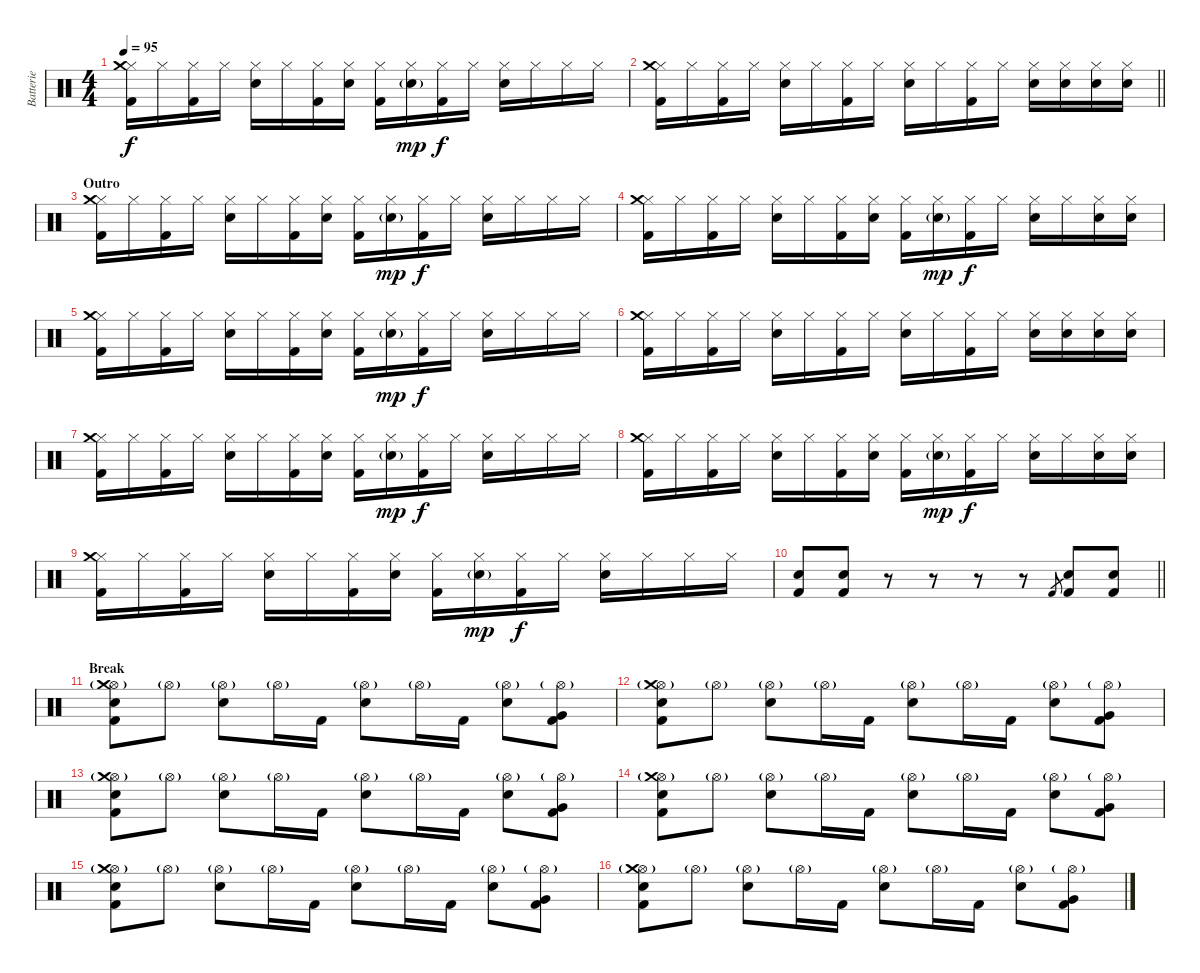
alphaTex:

\track ("Batterie" "Batterie") {instrument percussion}
\staff {score}
\articulation defaults
\ts (4 4)
\tempo 95
\clef neutral
\ks c
("Hi-Hat (closed)" "Crash medium (hit)" "Kick (hit) 2").16{dy f} "Hi-Hat (closed)".16 ("Hi-Hat (closed)" "Kick (hit) 2").16 "Hi-Hat (closed)".16 ("Hi-Hat (closed)" "Electric Snare (hit)").16 "Hi-Hat (closed)".16 ("Hi-Hat (closed)" "Kick (hit) 2").16 ("Hi-Hat (closed)" "Electric Snare (hit)").16 ("Hi-Hat (closed)" "Kick (hit) 2").16 ("Hi-Hat (closed)" "Electric Snare (hit)"{g}).16{dy mp} ("Hi-Hat (closed)" "Kick (hit) 2").16{dy f} "Hi-Hat (closed)".16 ("Hi-Hat (closed)" "Electric Snare (hit)").16 "Hi-Hat (closed)".16 "Hi-Hat (closed)".16 "Hi-Hat (closed)".16 |
\barLineRight lightlight
("Hi-Hat (closed)" "Crash medium (hit)" "Kick (hit) 2").16 "Hi-Hat (closed)".16 ("Hi-Hat (closed)" "Kick (hit) 2").16 "Hi-Hat (closed)".16 ("Hi-Hat (closed)" "Electric Snare (hit)").16 "Hi-Hat (closed)".16 ("Hi-Hat (closed)" "Kick (hit) 2").16 "Hi-Hat (closed)".16 ("Hi-Hat (closed)" "Electric Snare (hit)").16 "Hi-Hat (closed)".16 ("Hi-Hat (closed)" "Kick (hit) 2").16 "Hi-Hat (closed)".16 ("Hi-Hat (closed)" "Electric Snare (hit)").16 ("Hi-Hat (closed)" "Electric Snare (hit)").16 ("Hi-Hat (closed)" "Electric Snare (hit)").16 ("Hi-Hat (closed)" "Electric Snare (hit)").16 |
\section ("" "Outro")
("Hi-Hat (closed)" "Crash medium (hit)" "Kick (hit) 2").16 "Hi-Hat (closed)".16 ("Hi-Hat (closed)" "Kick (hit) 2").16 "Hi-Hat (closed)".16 ("Hi-Hat (closed)" "Electric Snare (hit)").16 "Hi-Hat (closed)".16 ("Hi-Hat (closed)" "Kick (hit) 2").16 ("Hi-Hat (closed)" "Electric Snare (hit)").16 ("Hi-Hat (closed)" "Kick (hit) 2").16 ("Hi-Hat (closed)" "Electric Snare (hit)"{g}).16{dy mp} ("Hi-Hat (closed)" "Kick (hit) 2").16{dy f} "Hi-Hat (closed)".16 ("Hi-Hat (closed)" "Electric Snare (hit)").16 "Hi-Hat (closed)".16 "Hi-Hat (closed)".16 "Hi-Hat (closed)".16 |
("Hi-Hat (closed)" "Crash medium (hit)" "Kick (hit) 2").16 "Hi-Hat (closed)".16 ("Hi-Hat (closed)" "Kick (hit) 2").16 "Hi-Hat (closed)".16 ("Hi-Hat (closed)" "Electric Snare (hit)").16 "Hi-Hat (closed)".16 ("Hi-Hat (closed)" "Kick (hit) 2").16 ("Hi-Hat (closed)" "Electric Snare (hit)").16 ("Hi-Hat (closed)" "Kick (hit) 2").16 ("Hi-Hat (closed)" "Electric Snare (hit)"{g}).16{dy mp} ("Hi-Hat (closed)" "Kick (hit) 2").16{dy f} "Hi-Hat (closed)".16 ("Hi-Hat (closed)" "Electric Snare (hit)").16 "Hi-Hat (closed)".16 ("Hi-Hat (closed)" "Electric Snare (hit)").16 ("Hi-Hat (closed)" "Electric Snare (hit)").16 |
("Hi-Hat (closed)" "Crash medium (hit)" "Kick (hit) 2").16 "Hi-Hat (closed)".16 ("Hi-Hat (closed)" "Kick (hit) 2").16 "Hi-Hat (closed)".16 ("Hi-Hat (closed)" "Electric Snare (hit)").16 "Hi-Hat (closed)".16 ("Hi-Hat (closed)" "Kick (hit) 2").16 ("Hi-Hat (closed)" "Electric Snare (hit)").16 ("Hi-Hat (closed)" "Kick (hit) 2").16 ("Hi-Hat (closed)" "Electric Snare (hit)"{g}).16{dy mp} ("Hi-Hat (closed)" "Kick (hit) 2").16{dy f} "Hi-Hat (closed)".16 ("Hi-Hat (closed)" "Electric Snare (hit)").16 "Hi-Hat (closed)".16 "Hi-Hat (closed)".16 "Hi-Hat (closed)".16 |
("Hi-Hat (closed)" "Crash medium (hit)" "Kick (hit) 2").16 "Hi-Hat (closed)".16 ("Hi-Hat (closed)" "Kick (hit) 2").16 "Hi-Hat (closed)".16 ("Hi-Hat (closed)" "Electric Snare (hit)").16 "Hi-Hat (closed)".16 ("Hi-Hat (closed)" "Kick (hit) 2").16 "Hi-Hat (closed)".16 ("Hi-Hat (closed)" "Electric Snare (hit)").16 "Hi-Hat (closed)".16 ("Hi-Hat (closed)" "Kick (hit) 2").16 "Hi-Hat (closed)".16 ("Hi-Hat (closed)" "Electric Snare (hit)").16 ("Hi-Hat (closed)" "Electric Snare (hit)").16 ("Hi-Hat (closed)" "Electric Snare (hit)").16 ("Hi-Hat (closed)" "Electric Snare (hit)").16 |
("Hi-Hat (closed)" "Crash medium (hit)" "Kick (hit) 2").16 "Hi-Hat (closed)".16 ("Hi-Hat (closed)" "Kick (hit) 2").16 "Hi-Hat (closed)".16 ("Hi-Hat (closed)" "Electric Snare (hit)").16 "Hi-Hat (closed)".16 ("Hi-Hat (closed)" "Kick (hit) 2").16 ("Hi-Hat (closed)" "Electric Snare (hit)").16 ("Hi-Hat (closed)" "Kick (hit) 2").16 ("Hi-Hat (closed)" "Electric Snare (hit)"{g}).16{dy mp} ("Hi-Hat (closed)" "Kick (hit) 2").16{dy f} "Hi-Hat (closed)".16 ("Hi-Hat (closed)" "Electric Snare (hit)").16 "Hi-Hat (closed)".16 "Hi-Hat (closed)".16 "Hi-Hat (closed)".16 |
("Hi-Hat (closed)" "Crash medium (hit)" "Kick (hit) 2").16 "Hi-Hat (closed)".16 ("Hi-Hat (closed)" "Kick (hit) 2").16 "Hi-Hat (closed)".16 ("Hi-Hat (closed)" "Electric Snare (hit)").16 "Hi-Hat (closed)".16 ("Hi-Hat (closed)" "Kick (hit) 2").16 ("Hi-Hat (closed)" "Electric Snare (hit)").16 ("Hi-Hat (closed)" "Kick (hit) 2").16 ("Hi-Hat (closed)" "Electric Snare (hit)"{g}).16{dy mp} ("Hi-Hat (closed)" "Kick (hit) 2").16{dy f} "Hi-Hat (closed)".16 ("Hi-Hat (closed)" "Electric Snare (hit)").16 "Hi-Hat (closed)".16 ("Hi-Hat (closed)" "Electric Snare (hit)").16 ("Hi-Hat (closed)" "Electric Snare (hit)").16 |
("Hi-Hat (closed)" "Crash medium (hit)" "Kick (hit) 2").16 "Hi-Hat (closed)".16 ("Hi-Hat (closed)" "Kick (hit) 2").16 "Hi-Hat (closed)".16 ("Hi-Hat (closed)" "Electric Snare (hit)").16 "Hi-Hat (closed)".16 ("Hi-Hat (closed)" "Kick (hit) 2").16 ("Hi-Hat (closed)" "Electric Snare (hit)").16 ("Hi-Hat (closed)" "Kick (hit) 2").16 ("Hi-Hat (closed)" "Electric Snare (hit)"{g}).16{dy mp} ("Hi-Hat (closed)" "Kick (hit) 2").16{dy f} "Hi-Hat (closed)".16 ("Hi-Hat (closed)" "Electric Snare (hit)").16 "Hi-Hat (closed)".16 "Hi-Hat (closed)".16 "Hi-Hat (closed)".16 |
\barLineRight lightlight
("Electric Snare (hit)" "Kick (hit) 2").8 ("Electric Snare (hit)" "Kick (hit) 2").8 r.8 r.8 r.8 r.8 "Kick (hit) 2".8{gr} ("Electric Snare (hit)" "Kick (hit) 2").8 ("Electric Snare (hit)" "Kick (hit) 2").8 |
\section ("" "Break")
("Hi-Hat (open)"{g} "Crash medium (hit)" "Electric Snare (hit)" "Kick (hit) 2").8 "Hi-Hat (open)"{g}.8 ("Hi-Hat (open)"{g} "Electric Snare (hit)").8 "Hi-Hat (open)"{g}.16 "Kick (hit) 2".16 ("Hi-Hat (open)"{g} "Electric Snare (hit)").8 "Hi-Hat (open)"{g}.16 "Kick (hit) 2".16 ("Hi-Hat (open)"{g} "Electric Snare (hit)").8 ("Hi-Hat (open)"{g} "Very Low Tom (hit)" "Kick (hit) 2").8 |
("Hi-Hat (open)"{g} "Crash medium (hit)" "Electric Snare (hit)" "Kick (hit) 2").8 "Hi-Hat (open)"{g}.8 ("Hi-Hat (open)"{g} "Electric Snare (hit)").8 "Hi-Hat (open)"{g}.16 "Kick (hit) 2".16 ("Hi-Hat (open)"{g} "Electric Snare (hit)").8 "Hi-Hat (open)"{g}.16 "Kick (hit) 2".16 ("Hi-Hat (open)"{g} "Electric Snare (hit)").8 ("Hi-Hat (open)"{g} "Very Low Tom (hit)" "Kick (hit) 2").8 |
("Hi-Hat (open)"{g} "Crash medium (hit)" "Electric Snare (hit)" "Kick (hit) 2").8 "Hi-Hat (open)"{g}.8 ("Hi-Hat (open)"{g} "Electric Snare (hit)").8 "Hi-Hat (open)"{g}.16 "Kick (hit) 2".16 ("Hi-Hat (open)"{g} "Electric Snare (hit)").8 "Hi-Hat (open)"{g}.16 "Kick (hit) 2".16 ("Hi-Hat (open)"{g} "Electric Snare (hit)").8 ("Hi-Hat (open)"{g} "Very Low Tom (hit)" "Kick (hit) 2").8 |
("Hi-Hat (open)"{g} "Crash medium (hit)" "Electric Snare (hit)" "Kick (hit) 2").8 "Hi-Hat (open)"{g}.8 ("Hi-Hat (open)"{g} "Electric Snare (hit)").8 "Hi-Hat (open)"{g}.16 "Kick (hit) 2".16 ("Hi-Hat (open)"{g} "Electric Snare (hit)").8 "Hi-Hat (open)"{g}.16 "Kick (hit) 2".16 ("Hi-Hat (open)"{g} "Electric Snare (hit)").8 ("Hi-Hat (open)"{g} "Very Low Tom (hit)" "Kick (hit) 2").8 |
("Hi-Hat (open)"{g} "Crash medium (hit)" "Electric Snare (hit)" "Kick (hit) 2").8 "Hi-Hat (open)"{g}.8 ("Hi-Hat (open)"{g} "Electric Snare (hit)").8 "Hi-Hat (open)"{g}.16 "Kick (hit) 2".16 ("Hi-Hat (open)"{g} "Electric Snare (hit)").8 "Hi-Hat (open)"{g}.16 "Kick (hit) 2".16 ("Hi-Hat (open)"{g} "Electric Snare (hit)").8 ("Hi-Hat (open)"{g} "Very Low Tom (hit)" "Kick (hit) 2").8 |
("Hi-Hat (open)"{g} "Crash medium (hit)" "Electric Snare (hit)" "Kick (hit) 2").8 "Hi-Hat (open)"{g}.8 ("Hi-Hat (open)"{g} "Electric Snare (hit)").8 "Hi-Hat (open)"{g}.16 "Kick (hit) 2".16 ("Hi-Hat (open)"{g} "Electric Snare (hit)").8 "Hi-Hat (open)"{g}.16 "Kick (hit) 2".16 ("Hi-Hat (open)"{g} "Electric Snare (hit)").8 ("Hi-Hat (open)"{g} "Very Low Tom (hit)" "Kick (hit) 2").8
